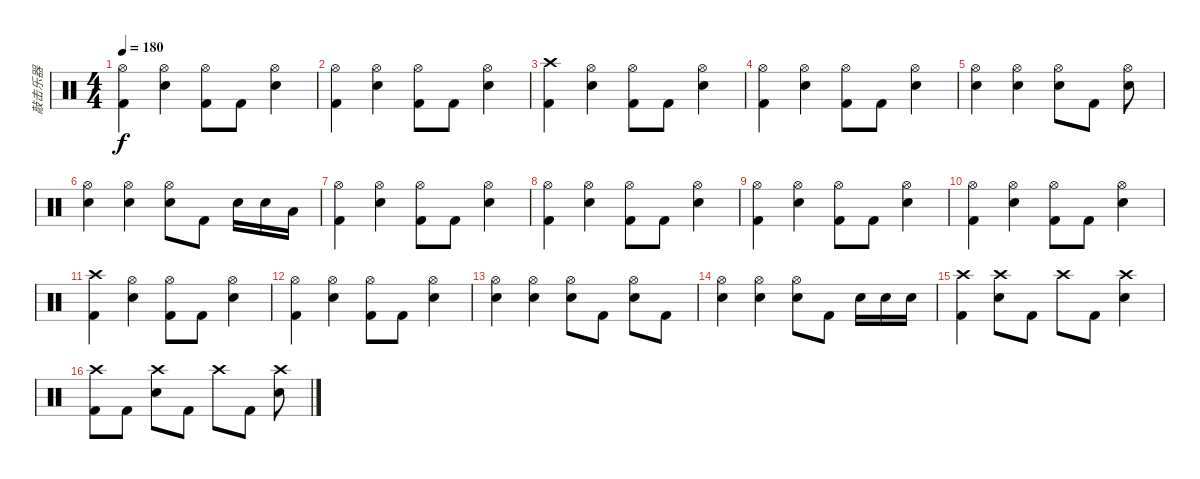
\track ("敲击乐器" "敲击乐器") {instrument percussion}
\staff {score}
\articulation defaults
\ts (4 4)
\tempo 180
\clef neutral
\ks c
("Hi-Hat (open)" "Kick (hit) 2").4{dy f} ("Hi-Hat (open)" "Electric Snare (hit)").4 ("Hi-Hat (open)" "Kick (hit) 2").8 "Kick (hit) 2".8 ("Hi-Hat (open)" "Electric Snare (hit)").4 |
("Hi-Hat (open)" "Kick (hit) 2").4 ("Hi-Hat (open)" "Electric Snare (hit)").4 ("Hi-Hat (open)" "Kick (hit) 2").8 "Kick (hit) 2".8 ("Hi-Hat (open)" "Electric Snare (hit)").4 |
("Crash high (hit)" "Kick (hit) 2").4 ("Hi-Hat (open)" "Electric Snare (hit)").4 ("Hi-Hat (open)" "Kick (hit) 2").8 "Kick (hit) 2".8 ("Hi-Hat (open)" "Electric Snare (hit)").4 |
("Hi-Hat (open)" "Kick (hit) 2").4 ("Hi-Hat (open)" "Electric Snare (hit)").4 ("Hi-Hat (open)" "Kick (hit) 2").8 "Kick (hit) 2".8 ("Hi-Hat (open)" "Electric Snare (hit)").4 |
("Hi-Hat (open)" "Electric Snare (hit)").4 ("Hi-Hat (open)" "Electric Snare (hit)").4 ("Hi-Hat (open)" "Electric Snare (hit)").8 "Kick (hit) 2".8 ("Hi-Hat (open)" "Electric Snare (hit)").8 |
("Hi-Hat (open)" "Electric Snare (hit)").4 ("Hi-Hat (open)" "Electric Snare (hit)").4 ("Hi-Hat (open)" "Electric Snare (hit)").8 "Kick (hit) 2".8 "Electric Snare (hit)".16 "Electric Snare (hit)".16 "Low Tom (hit)".16 |
("Hi-Hat (open)" "Kick (hit) 2").4 ("Hi-Hat (open)" "Electric Snare (hit)").4 ("Hi-Hat (open)" "Kick (hit) 2").8 "Kick (hit) 2".8 ("Hi-Hat (open)" "Electric Snare (hit)").4 |
("Hi-Hat (open)" "Kick (hit) 2").4 ("Hi-Hat (open)" "Electric Snare (hit)").4 ("Hi-Hat (open)" "Kick (hit) 2").8 "Kick (hit) 2".8 ("Hi-Hat (open)" "Electric Snare (hit)").4 |
("Hi-Hat (open)" "Kick (hit) 2").4 ("Hi-Hat (open)" "Electric Snare (hit)").4 ("Hi-Hat (open)" "Kick (hit) 2").8 "Kick (hit) 2".8 ("Hi-Hat (open)" "Electric Snare (hit)").4 |
("Hi-Hat (open)" "Kick (hit) 2").4 ("Hi-Hat (open)" "Electric Snare (hit)").4 ("Hi-Hat (open)" "Kick (hit) 2").8 "Kick (hit) 2".8 ("Hi-Hat (open)" "Electric Snare (hit)").4 |
("Crash high (hit)" "Kick (hit) 2").4 ("Hi-Hat (open)" "Electric Snare (hit)").4 ("Hi-Hat (open)" "Kick (hit) 2").8 "Kick (hit) 2".8 ("Hi-Hat (open)" "Electric Snare (hit)").4 |
("Hi-Hat (open)" "Kick (hit) 2").4 ("Hi-Hat (open)" "Electric Snare (hit)").4 ("Hi-Hat (open)" "Kick (hit) 2").8 "Kick (hit) 2".8 ("Hi-Hat (open)" "Electric Snare (hit)").4 |
("Hi-Hat (open)" "Electric Snare (hit)").4 ("Hi-Hat (open)" "Electric Snare (hit)").4 ("Hi-Hat (open)" "Electric Snare (hit)").8 "Kick (hit) 2".8 ("Hi-Hat (open)" "Electric Snare (hit)").8 "Kick (hit) 2".8 |
("Hi-Hat (open)" "Electric Snare (hit)").4 ("Hi-Hat (open)" "Electric Snare (hit)").4 ("Hi-Hat (open)" "Electric Snare (hit)").8 "Kick (hit) 2".8 "Electric Snare (hit)".16 "Electric Snare (hit)".16 "Electric Snare (hit)".16 |
("Crash high (hit)" "Kick (hit) 2").4 ("Crash high (hit)" "Electric Snare (hit)").8 "Kick (hit) 2".8 "Crash high (hit)".8 "Kick (hit) 2".8 ("Crash high (hit)" "Electric Snare (hit)").4 |
("Crash high (hit)" "Kick (hit) 2").8 "Kick (hit) 2".8 ("Crash high (hit)" "Electric Snare (hit)").8 "Kick (hit) 2".8 "Crash high (hit)".8 "Kick (hit) 2".8 ("Crash high (hit)" "Electric Snare (hit)").8
